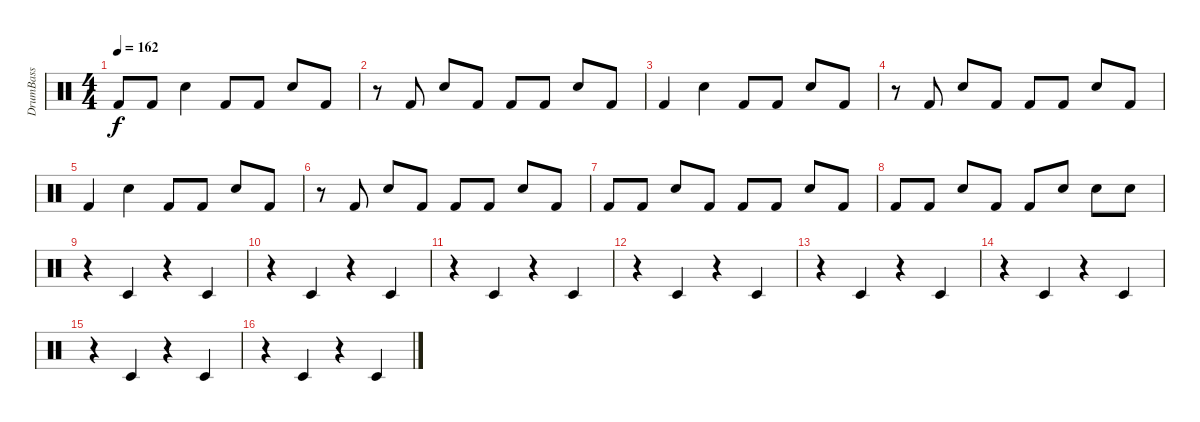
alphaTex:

\track ("DrumBass" "DrumBass") {instrument percussion}
\staff {score}
\articulation defaults
\ts (4 4)
\tempo 162
\clef neutral
\ks c "Kick (hit) 2".8{dy f} "Kick (hit) 2".8 "Snare (hit) 2".4 "Kick (hit) 2".8 "Kick (hit) 2".8 "Snare (hit) 2".8 "Kick (hit) 2".8
|
r.8 "Kick (hit) 2".8 "Snare (hit) 2".8 "Kick (hit) 2".8 "Kick (hit) 2".8 "Kick (hit) 2".8 "Snare (hit) 2".8 "Kick (hit) 2".8 |
"Kick (hit) 2".4 "Snare (hit) 2".4 "Kick (hit) 2".8 "Kick (hit) 2".8 "Snare (hit) 2".8 "Kick (hit) 2".8 |
r.8 "Kick (hit) 2".8 "Snare (hit) 2".8 "Kick (hit) 2".8 "Kick (hit) 2".8 "Kick (hit) 2".8 "Snare (hit) 2".8 "Kick (hit) 2".8 |
"Kick (hit) 2".4 "Snare (hit) 2".4 "Kick (hit) 2".8 "Kick (hit) 2".8 "Snare (hit) 2".8 "Kick (hit) 2".8 |
r.8 "Kick (hit) 2".8 "Snare (hit) 2".8 "Kick (hit) 2".8 "Kick (hit) 2".8 "Kick (hit) 2".8 "Snare (hit) 2".8 "Kick (hit) 2".8 |
"Kick (hit) 2".8 "Kick (hit) 2".8 "Snare (hit) 2".8 "Kick (hit) 2".8 "Kick (hit) 2".8 "Kick (hit) 2".8 "Snare (hit) 2".8 "Kick (hit) 2".8 |
"Kick (hit) 2".8 "Kick (hit) 2".8 "Snare (hit) 2".8 "Kick (hit) 2".8 "Kick (hit) 2".8 "Snare (hit) 2"{tr (38 16)}.8 "Snare (hit) 2"{tr (38 16)}.8 "Snare (hit) 2"{tr (38 16)}.8 |
r.4 "Timbale low (hit)".4 r.4 "Timbale low (hit)".4 |
r.4 "Timbale low (hit)".4 r.4 "Timbale low (hit)".4 |
r.4 "Timbale low (hit)".4 r.4 "Timbale low (hit)".4 |
r.4 "Timbale low (hit)".4 r.4 "Timbale low (hit)".4 |
r.4 "Timbale low (hit)".4 r.4 "Timbale low (hit)".4 |
r.4 "Timbale low (hit)".4 r.4 "Timbale low (hit)".4 |
r.4 "Timbale low (hit)".4 r.4 "Timbale low (hit)".4 |
r.4 "Timbale low (hit)".4 r.4 "Timbale low (hit)".4
